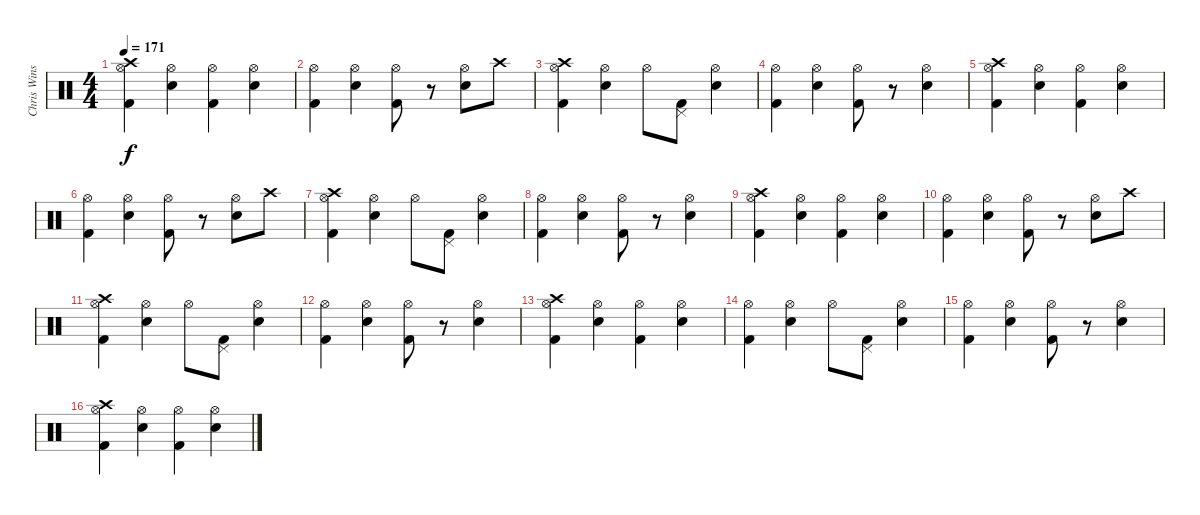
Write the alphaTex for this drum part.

\track ("Chris Winship (Drums)" "Chris Wins") {instrument percussion}
\staff {score}
\articulation defaults
\ts (4 4)
\tempo 171
\clef neutral
\ks c
("Crash high (hit)" "Hi-Hat (open)" "Kick (hit) 2").4{dy f} ("Hi-Hat (open)" "Snare (hit) 2").4 ("Hi-Hat (open)" "Kick (hit) 2").4 ("Hi-Hat (open)" "Snare (hit) 2").4 |
("Hi-Hat (open)" "Kick (hit) 2").4 ("Hi-Hat (open)" "Snare (hit) 2").4 ("Hi-Hat (open)" "Kick (hit) 2").8 r.8 ("Hi-Hat (open)" "Snare (hit) 2").8 "Crash high (hit)".8 |
("Crash high (hit)" "Hi-Hat (open)" "Kick (hit) 2").4 ("Hi-Hat (open)" "Snare (hit) 2").4 "Hi-Hat (open)".8 ("Pedal Hi-Hat (hit)" "Kick (hit) 2").8 ("Hi-Hat (open)" "Snare (hit) 2").4 |
("Hi-Hat (open)" "Kick (hit) 2").4 ("Hi-Hat (open)" "Snare (hit) 2").4 ("Hi-Hat (open)" "Kick (hit) 2").8 r.8 ("Hi-Hat (open)" "Snare (hit) 2").4 |
("Crash high (hit)" "Hi-Hat (open)" "Kick (hit) 2").4 ("Hi-Hat (open)" "Snare (hit) 2").4 ("Hi-Hat (open)" "Kick (hit) 2").4 ("Hi-Hat (open)" "Snare (hit) 2").4 |
("Hi-Hat (open)" "Kick (hit) 2").4 ("Hi-Hat (open)" "Snare (hit) 2").4 ("Hi-Hat (open)" "Kick (hit) 2").8 r.8 ("Hi-Hat (open)" "Snare (hit) 2").8 "Crash high (hit)".8 |
("Crash high (hit)" "Hi-Hat (open)" "Kick (hit) 2").4 ("Hi-Hat (open)" "Snare (hit) 2").4 "Hi-Hat (open)".8 ("Pedal Hi-Hat (hit)" "Kick (hit) 2").8 ("Hi-Hat (open)" "Snare (hit) 2").4 |
("Hi-Hat (open)" "Kick (hit) 2").4 ("Hi-Hat (open)" "Snare (hit) 2").4 ("Hi-Hat (open)" "Kick (hit) 2").8 r.8 ("Hi-Hat (open)" "Snare (hit) 2").4 |
("Crash high (hit)" "Hi-Hat (open)" "Kick (hit) 2").4 ("Hi-Hat (open)" "Snare (hit) 2").4 ("Hi-Hat (open)" "Kick (hit) 2").4 ("Hi-Hat (open)" "Snare (hit) 2").4 |
("Hi-Hat (open)" "Kick (hit) 2").4 ("Hi-Hat (open)" "Snare (hit) 2").4 ("Hi-Hat (open)" "Kick (hit) 2").8 r.8 ("Hi-Hat (open)" "Snare (hit) 2").8 "Crash high (hit)".8 |
("Crash high (hit)" "Hi-Hat (open)" "Kick (hit) 2").4 ("Hi-Hat (open)" "Snare (hit) 2").4 "Hi-Hat (open)".8 ("Pedal Hi-Hat (hit)" "Kick (hit) 2").8 ("Hi-Hat (open)" "Snare (hit) 2").4 |
("Hi-Hat (open)" "Kick (hit) 2").4 ("Hi-Hat (open)" "Snare (hit) 2").4 ("Hi-Hat (open)" "Kick (hit) 2").8 r.8 ("Hi-Hat (open)" "Snare (hit) 2").4 |
("Crash high (hit)" "Hi-Hat (open)" "Kick (hit) 2").4 ("Hi-Hat (open)" "Snare (hit) 2").4 ("Hi-Hat (open)" "Kick (hit) 2").4 ("Hi-Hat (open)" "Snare (hit) 2").4 |
("Hi-Hat (open)" "Kick (hit) 2").4 ("Hi-Hat (open)" "Snare (hit) 2").4 "Hi-Hat (open)".8 ("Pedal Hi-Hat (hit)" "Kick (hit) 2").8 ("Hi-Hat (open)" "Snare (hit) 2").4 |
("Hi-Hat (open)" "Kick (hit) 2").4 ("Hi-Hat (open)" "Snare (hit) 2").4 ("Hi-Hat (open)" "Kick (hit) 2").8 r.8 ("Hi-Hat (open)" "Snare (hit) 2").4 |
("Crash high (hit)" "Hi-Hat (open)" "Kick (hit) 2").4 ("Hi-Hat (open)" "Snare (hit) 2").4 ("Hi-Hat (open)" "Kick (hit) 2").4 ("Hi-Hat (open)" "Snare (hit) 2").4
